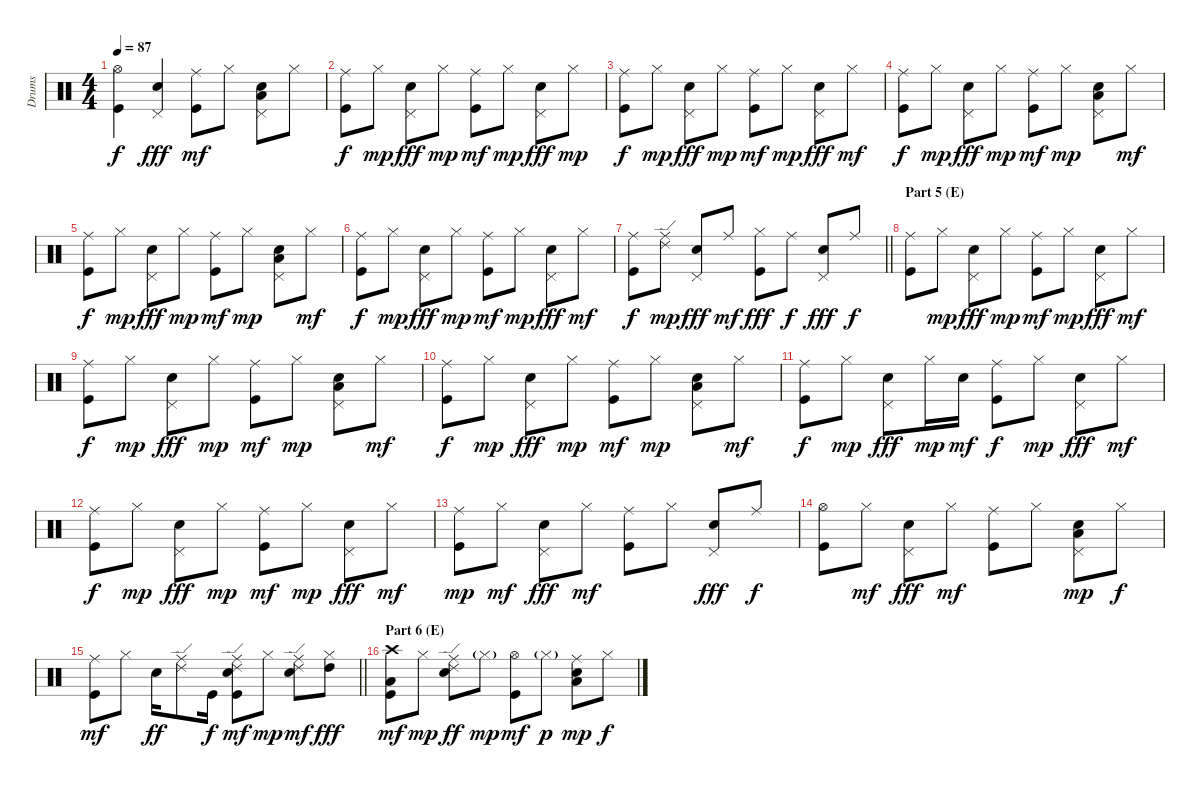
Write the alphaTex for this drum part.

\track ("Drums" "Drums") {instrument percussion}
\staff {score}
\articulation defaults
\ts (4 4)
\tempo 87
\clef neutral
\ks c
("Hi-Hat (open)" "Kick (hit)").4{dy f} ("Pedal Hi-Hat (hit)" "Snare (hit) 2").4{dy fff} ("Ride (middle)" "Kick (hit)").8{dy mf} "Hi-Hat (closed)".8 ("Pedal Hi-Hat (hit)" "Snare (hit) 2" "Low Tom (hit)").8 "Hi-Hat (closed)".8 |
("Ride (middle)" "Kick (hit)").8{dy f} "Hi-Hat (closed)".8{dy mp} ("Pedal Hi-Hat (hit)" "Snare (hit) 2").8{dy fff} "Hi-Hat (closed)".8{dy mp} ("Ride (middle)" "Kick (hit)").8{dy mf} "Hi-Hat (closed)".8{dy mp} ("Pedal Hi-Hat (hit)" "Snare (hit) 2").8{dy fff} "Hi-Hat (closed)".8{dy mp} |
("Ride (middle)" "Kick (hit)").8{dy f} "Hi-Hat (closed)".8{dy mp} ("Pedal Hi-Hat (hit)" "Snare (hit) 2").8{dy fff} "Hi-Hat (closed)".8{dy mp} ("Ride (middle)" "Kick (hit)").8{dy mf} "Hi-Hat (closed)".8{dy mp} ("Pedal Hi-Hat (hit)" "Snare (hit) 2").8{dy fff} "Hi-Hat (closed)".8{dy mf} |
("Ride (middle)" "Kick (hit)").8{dy f} "Hi-Hat (closed)".8{dy mp} ("Pedal Hi-Hat (hit)" "Snare (hit) 2").8{dy fff} "Hi-Hat (closed)".8{dy mp} ("Ride (middle)" "Kick (hit)").8{dy mf} "Hi-Hat (closed)".8{dy mp} ("Pedal Hi-Hat (hit)" "Snare (hit) 2" "Low Tom (hit)").8 "Hi-Hat (closed)".8{dy mf} |
("Ride (middle)" "Kick (hit)").8{dy f} "Hi-Hat (closed)".8{dy mp} ("Pedal Hi-Hat (hit)" "Snare (hit) 2").8{dy fff} "Hi-Hat (closed)".8{dy mp} ("Ride (middle)" "Kick (hit)").8{dy mf} "Hi-Hat (closed)".8{dy mp} ("Pedal Hi-Hat (hit)" "Snare (hit) 2" "Low Tom (hit)").8 "Hi-Hat (closed)".8{dy mf} |
("Ride (middle)" "Kick (hit)").8{dy f} "Hi-Hat (closed)".8{dy mp} ("Pedal Hi-Hat (hit)" "Snare (hit) 2").8{dy fff} "Hi-Hat (closed)".8{dy mp} ("Ride (middle)" "Kick (hit)").8{dy mf} "Hi-Hat (closed)".8{dy mp} ("Pedal Hi-Hat (hit)" "Snare (hit) 2").8{dy fff} "Hi-Hat (closed)".8{dy mf} |
\barLineRight lightlight
("Ride (middle)" "Kick (hit)").8{dy f} ("Ride (middle)" "Ride (edge) 2").8{dy mp} ("Pedal Hi-Hat (hit)" "Snare (hit) 2").8{dy fff} "Ride (middle)".8{dy mf} ("Hi-Hat (closed)" "Kick (hit)").8{dy fff} "Ride (middle)".8{dy f} ("Pedal Hi-Hat (hit)" "Snare (hit) 2").8{dy fff} "Ride (middle)".8{dy f} |
\section ("" "Part 5 (E)")
("Ride (middle)" "Kick (hit)").8 "Hi-Hat (closed)".8{dy mp} ("Pedal Hi-Hat (hit)" "Snare (hit) 2").8{dy fff} "Hi-Hat (closed)".8{dy mp} ("Ride (middle)" "Kick (hit)").8{dy mf} "Hi-Hat (closed)".8{dy mp} ("Pedal Hi-Hat (hit)" "Snare (hit) 2").8{dy fff} "Hi-Hat (closed)".8{dy mf} |
("Ride (middle)" "Kick (hit)").8{dy f} "Hi-Hat (closed)".8{dy mp} ("Pedal Hi-Hat (hit)" "Snare (hit) 2").8{dy fff} "Hi-Hat (closed)".8{dy mp} ("Ride (middle)" "Kick (hit)").8{dy mf} "Hi-Hat (closed)".8{dy mp} ("Pedal Hi-Hat (hit)" "Snare (hit) 2" "Low Tom (hit)").8 "Hi-Hat (closed)".8{dy mf} |
("Ride (middle)" "Kick (hit)").8{dy f} "Hi-Hat (closed)".8{dy mp} ("Pedal Hi-Hat (hit)" "Snare (hit) 2").8{dy fff} "Hi-Hat (closed)".8{dy mp} ("Ride (middle)" "Kick (hit)").8{dy mf} "Hi-Hat (closed)".8{dy mp} ("Pedal Hi-Hat (hit)" "Snare (hit) 2" "Low Tom (hit)").8 "Hi-Hat (closed)".8{dy mf} |
("Ride (middle)" "Kick (hit)").8{dy f} "Hi-Hat (closed)".8{dy mp} ("Pedal Hi-Hat (hit)" "Snare (hit) 2").8{dy fff} "Hi-Hat (closed)".16{dy mp} "Snare (hit) 2".16{dy mf} ("Ride (middle)" "Kick (hit)").8{dy f} "Hi-Hat (closed)".8{dy mp} ("Pedal Hi-Hat (hit)" "Snare (hit) 2").8{dy fff} "Hi-Hat (closed)".8{dy mf} |
("Ride (middle)" "Kick (hit)").8{dy f} "Hi-Hat (closed)".8{dy mp} ("Pedal Hi-Hat (hit)" "Snare (hit) 2").8{dy fff} "Hi-Hat (closed)".8{dy mp} ("Ride (middle)" "Kick (hit)").8{dy mf} "Hi-Hat (closed)".8{dy mp} ("Pedal Hi-Hat (hit)" "Snare (hit) 2").8{dy fff} "Hi-Hat (closed)".8{dy mf} |
("Ride (middle)" "Kick (hit)").8{dy mp} "Hi-Hat (closed)".8{dy mf} ("Pedal Hi-Hat (hit)" "Snare (hit) 2").8{dy fff} "Hi-Hat (closed)".8{dy mf} ("Ride (middle)" "Kick (hit)").8 "Hi-Hat (closed)".8 ("Pedal Hi-Hat (hit)" "Snare (hit) 2").8{dy fff} "Ride (middle)".8{dy f} |
("Hi-Hat (open)" "Kick (hit)").8 "Hi-Hat (closed)".8{dy mf} ("Pedal Hi-Hat (hit)" "Snare (hit) 2").8{dy fff} "Hi-Hat (closed)".8{dy mf} ("Ride (middle)" "Kick (hit)").8 "Hi-Hat (closed)".8 ("Pedal Hi-Hat (hit)" "Snare (hit) 2" "Low Tom (hit)").8{dy mp} "Hi-Hat (closed)".8{dy f} |
\barLineRight lightlight
("Ride (middle)" "Kick (hit)").8{dy mf} "Hi-Hat (closed)".8 "Snare (hit) 2".16{dy ff} ("Ride (middle)" "Ride (edge) 2").8 "Kick (hit)".16{dy f} ("Ride (middle)" "Ride (edge) 2" "Snare (hit) 2" "Kick (hit)").8{dy mf} "Hi-Hat (closed)".8{dy mp} ("Ride (middle)" "Ride (edge) 2" "Snare (hit) 2").8{dy mf} ("Hi-Hat (closed)" "High Tom (hit)").8{dy fff} |
\section ("" "Part 6 (E)")
("Crash high (hit)" "Kick (hit)" "Low Floor Tom (hit)").8{dy mf} "Hi-Hat (closed)".8{dy mp} ("Ride (edge) 2" "Ride (middle)" "Snare (hit) 2").8{dy ff} "Hi-Hat (closed)"{g}.8{dy mp} ("Hi-Hat (open)" "Kick (hit)").8{dy mf} "Hi-Hat (closed)"{g}.8{dy p} ("Ride (middle)" "Snare (hit) 2" "Low Tom (hit)").8{dy mp} "Hi-Hat (closed)".8{dy f}
